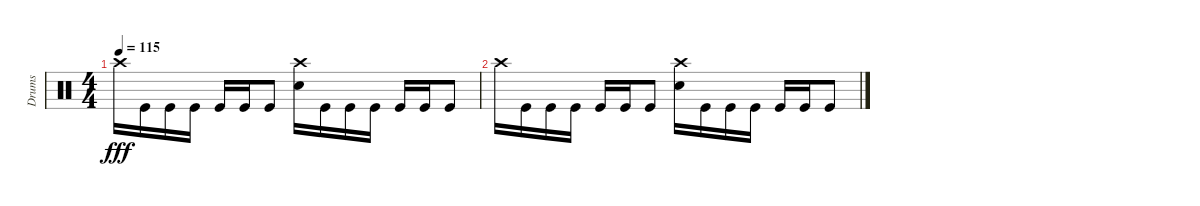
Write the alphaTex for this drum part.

\track ("Drums" "Drums") {instrument percussion}
\staff {score}
\articulation defaults
\ts (4 4)
\tempo 115
\clef neutral
\ks c "Crash high (hit)".16{dy fff} "Kick (hit)".16 "Kick (hit)".16 "Kick (hit)".16 "Kick (hit)".16 "Kick (hit)".16 "Kick (hit)".8
("Crash high (hit)" "Electric Snare (hit)").16 "Kick (hit)".16 "Kick (hit)".16 "Kick (hit)".16 "Kick (hit)".16 "Kick (hit)".16 "Kick (hit)".8 |
"Crash high (hit)".16 "Kick (hit)".16 "Kick (hit)".16 "Kick (hit)".16 "Kick (hit)".16 "Kick (hit)".16 "Kick (hit)".8 ("Crash high (hit)" "Electric Snare (hit)").16 "Kick (hit)".16 "Kick (hit)".16 "Kick (hit)".16 "Kick (hit)".16 "Kick (hit)".16 "Kick (hit)".8
